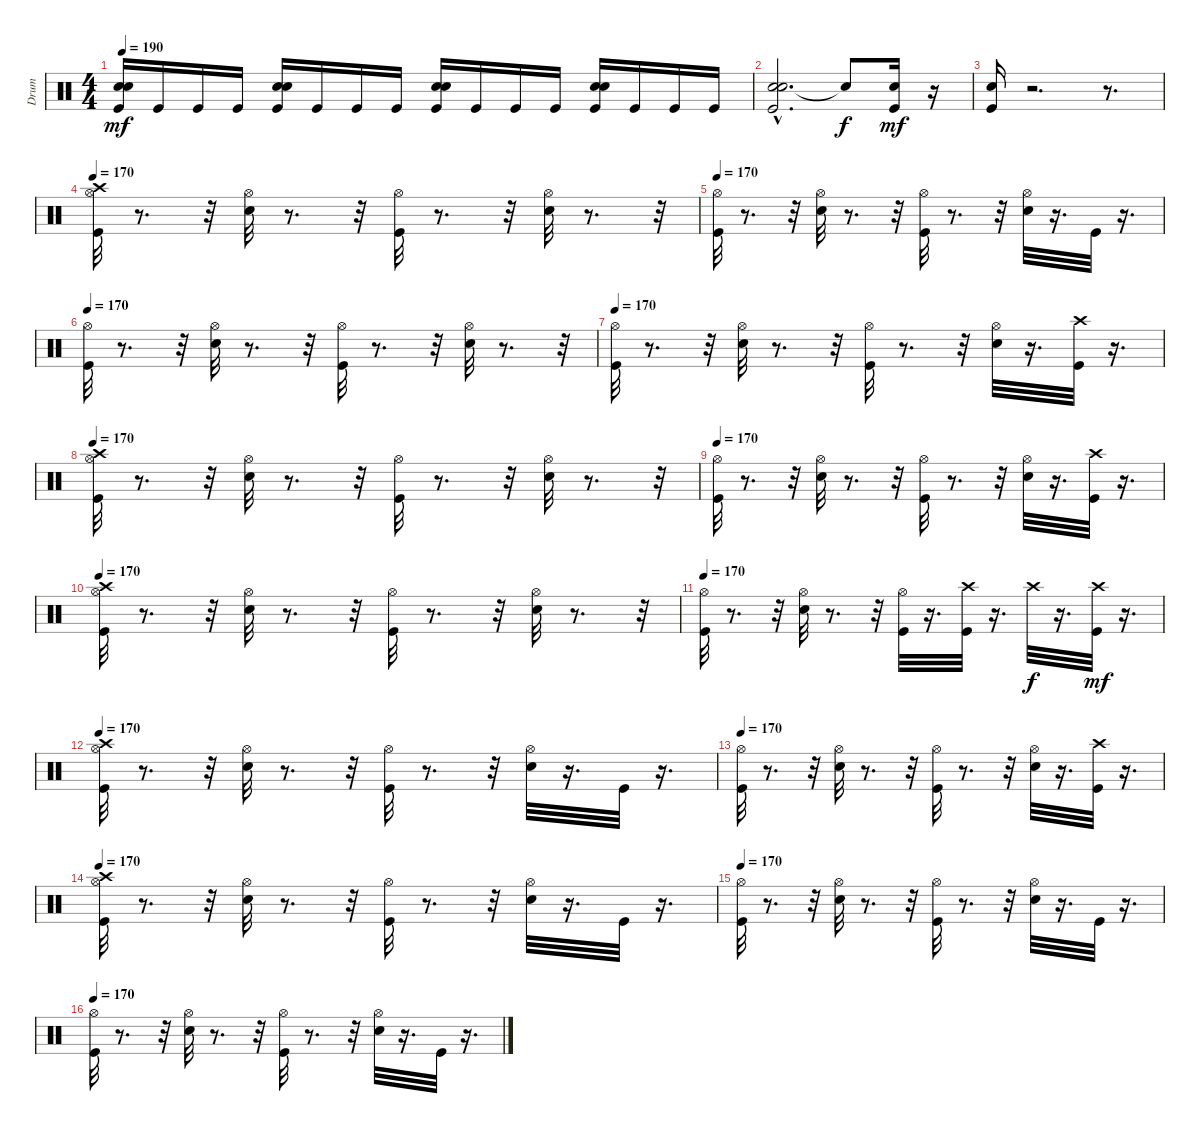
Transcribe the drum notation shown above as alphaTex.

\track ("Drum" "Drum") {instrument percussion}
\staff {score}
\articulation defaults
\ts (4 4)
\tempo 190
\clef neutral
\ks c
("Snare (hit) 2" "Kick (hit)" "Snare (hit) 2").16{dy mf} "Kick (hit)".16 "Kick (hit)".16 "Kick (hit)".16 ("Snare (hit) 2" "Kick (hit)" "Snare (hit) 2").16 "Kick (hit)".16 "Kick (hit)".16 "Kick (hit)".16 ("Snare (hit) 2" "Kick (hit)" "Snare (hit) 2").16 "Kick (hit)".16 "Kick (hit)".16 "Kick (hit)".16 ("Snare (hit) 2" "Kick (hit)" "Snare (hit) 2").16 "Kick (hit)".16 "Kick (hit)".16 "Kick (hit)".16 |
("Snare (hit) 2"{hac} "Kick (hit)" "Snare (hit) 2").2{d} "Snare (hit)"{t}.8{dy f} ("Snare (hit) 2" "Kick (hit)").16{dy mf} r.16 |
("Snare (hit) 2" "Kick (hit)").16 r.2{d} r.8{d} |
\tempo 170
("Hi-Hat (open)" "Crash high (hit)" "Kick (hit)").32 r.8{d} r.32 ("Hi-Hat (open)" "Snare (hit) 2").32 r.8{d} r.32 ("Hi-Hat (open)" "Kick (hit)").32 r.8{d} r.32 ("Hi-Hat (open)" "Snare (hit) 2").32 r.8{d} r.32 |
\tempo 170
("Hi-Hat (open)" "Kick (hit)").32 r.8{d} r.32 ("Hi-Hat (open)" "Snare (hit) 2").32 r.8{d} r.32 ("Hi-Hat (open)" "Kick (hit)").32 r.8{d} r.32 ("Hi-Hat (open)" "Snare (hit) 2").32 r.16{d} "Kick (hit)".32 r.16{d} |
\tempo 170
("Hi-Hat (open)" "Kick (hit)").32 r.8{d} r.32 ("Hi-Hat (open)" "Snare (hit) 2").32 r.8{d} r.32 ("Hi-Hat (open)" "Kick (hit)").32 r.8{d} r.32 ("Hi-Hat (open)" "Snare (hit) 2").32 r.8{d} r.32 |
\tempo 170
("Hi-Hat (open)" "Kick (hit)").32 r.8{d} r.32 ("Hi-Hat (open)" "Snare (hit) 2").32 r.8{d} r.32 ("Hi-Hat (open)" "Kick (hit)").32 r.8{d} r.32 ("Hi-Hat (open)" "Snare (hit) 2").32 r.16{d} ("Crash high (hit)" "Kick (hit)").32 r.16{d} |
\tempo 170
("Hi-Hat (open)" "Crash high (hit)" "Kick (hit)").32 r.8{d} r.32 ("Hi-Hat (open)" "Snare (hit) 2").32 r.8{d} r.32 ("Hi-Hat (open)" "Kick (hit)").32 r.8{d} r.32 ("Hi-Hat (open)" "Snare (hit) 2").32 r.8{d} r.32 |
\tempo 170
("Hi-Hat (open)" "Kick (hit)").32 r.8{d} r.32 ("Hi-Hat (open)" "Snare (hit) 2").32 r.8{d} r.32 ("Hi-Hat (open)" "Kick (hit)").32 r.8{d} r.32 ("Hi-Hat (open)" "Snare (hit) 2").32 r.16{d} ("Crash high (hit)" "Kick (hit)").32 r.16{d} |
\tempo 170
("Crash high (hit)" "Hi-Hat (open)" "Kick (hit)").32 r.8{d} r.32 ("Hi-Hat (open)" "Snare (hit) 2").32 r.8{d} r.32 ("Hi-Hat (open)" "Kick (hit)").32 r.8{d} r.32 ("Hi-Hat (open)" "Snare (hit) 2").32 r.8{d} r.32 |
\tempo 170
("Hi-Hat (open)" "Kick (hit)").32 r.8{d} r.32 ("Hi-Hat (open)" "Snare (hit) 2").32 r.8{d} r.32 ("Hi-Hat (open)" "Kick (hit)").32 r.16{d} ("Crash high (hit)" "Kick (hit)").32 r.16{d} "Crash high (hit)".32{dy f} r.16{d} ("Kick (hit)" "Crash high (hit)").32{dy mf} r.16{d} |
\tempo 170
("Crash high (hit)" "Hi-Hat (open)" "Kick (hit)").32 r.8{d} r.32 ("Hi-Hat (open)" "Snare (hit) 2").32 r.8{d} r.32 ("Hi-Hat (open)" "Kick (hit)").32 r.8{d} r.32 ("Hi-Hat (open)" "Snare (hit) 2").32 r.16{d} "Kick (hit)".32 r.16{d} |
\tempo 170
("Hi-Hat (open)" "Kick (hit)").32 r.8{d} r.32 ("Hi-Hat (open)" "Snare (hit) 2").32 r.8{d} r.32 ("Hi-Hat (open)" "Kick (hit)").32 r.8{d} r.32 ("Hi-Hat (open)" "Snare (hit) 2").32 r.16{d} ("Crash high (hit)" "Kick (hit)").32 r.16{d} |
\tempo 170
("Crash high (hit)" "Hi-Hat (open)" "Kick (hit)").32 r.8{d} r.32 ("Hi-Hat (open)" "Snare (hit) 2").32 r.8{d} r.32 ("Hi-Hat (open)" "Kick (hit)").32 r.8{d} r.32 ("Hi-Hat (open)" "Snare (hit) 2").32 r.16{d} "Kick (hit)".32 r.16{d} |
\tempo 170
("Hi-Hat (open)" "Kick (hit)").32 r.8{d} r.32 ("Hi-Hat (open)" "Snare (hit) 2").32 r.8{d} r.32 ("Hi-Hat (open)" "Kick (hit)").32 r.8{d} r.32 ("Hi-Hat (open)" "Snare (hit) 2").32 r.16{d} "Kick (hit)".32 r.16{d} |
\tempo 170
("Hi-Hat (open)" "Kick (hit)").32 r.8{d} r.32 ("Hi-Hat (open)" "Snare (hit) 2").32 r.8{d} r.32 ("Hi-Hat (open)" "Kick (hit)").32 r.8{d} r.32 ("Hi-Hat (open)" "Snare (hit) 2").32 r.16{d} "Kick (hit)".32 r.16{d}
